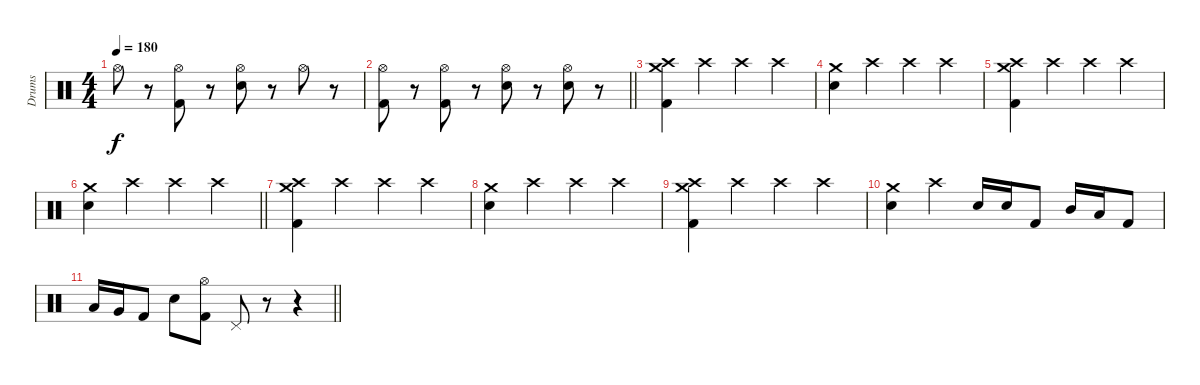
\track ("Drums" "Drums") {instrument percussion}
\staff {score}
\articulation defaults
\ts (4 4)
\tempo 180
\clef neutral
\ks c "Hi-Hat (open)".8{dy f}
r.8 ("Hi-Hat (open)" "Kick (hit) 2").8 r.8 ("Hi-Hat (open)" "Electric Snare (hit)").8 r.8 "Hi-Hat (open)".8 r.8 |
\barLineRight lightlight
("Hi-Hat (open)" "Kick (hit) 2").8 r.8 ("Hi-Hat (open)" "Kick (hit) 2").8 r.8 ("Hi-Hat (open)" "Electric Snare (hit)").8 r.8 ("Hi-Hat (open)" "Electric Snare (hit)").8 r.8 |
("Crash medium (hit)" "Crash high (hit)" "Kick (hit) 2").4 "Crash high (hit)".4 "Crash high (hit)".4 "Crash high (hit)".4 |
("Crash medium (hit)" "Electric Snare (hit)").4 "Crash high (hit)".4 "Crash high (hit)".4 "Crash high (hit)".4 |
("Crash medium (hit)" "Crash high (hit)" "Kick (hit) 2").4 "Crash high (hit)".4 "Crash high (hit)".4 "Crash high (hit)".4 |
\barLineRight lightlight
("Crash medium (hit)" "Electric Snare (hit)").4 "Crash high (hit)".4 "Crash high (hit)".4 "Crash high (hit)".4 |
("Crash medium (hit)" "Crash high (hit)" "Kick (hit) 2").4 "Crash high (hit)".4 "Crash high (hit)".4 "Crash high (hit)".4 |
("Crash medium (hit)" "Electric Snare (hit)").4 "Crash high (hit)".4 "Crash high (hit)".4 "Crash high (hit)".4 |
("Crash medium (hit)" "Crash high (hit)" "Kick (hit) 2").4 "Crash high (hit)".4 "Crash high (hit)".4 "Crash high (hit)".4 |
("Crash medium (hit)" "Electric Snare (hit)").4 "Crash high (hit)".4 "Electric Snare (hit)".16 "Electric Snare (hit)".16 "Kick (hit) 2".8 "Mid Tom (hit)".16 "Low Tom (hit)".16 "Kick (hit) 2".8 |
\barLineRight lightlight "Low Tom (hit)".16 "Very Low Tom (hit)".16 "Kick (hit) 2".8 "Electric Snare (hit)".8
("Hi-Hat (open)" "Kick (hit) 2").8 "Pedal Hi-Hat (hit)".8 r.8 r.4
